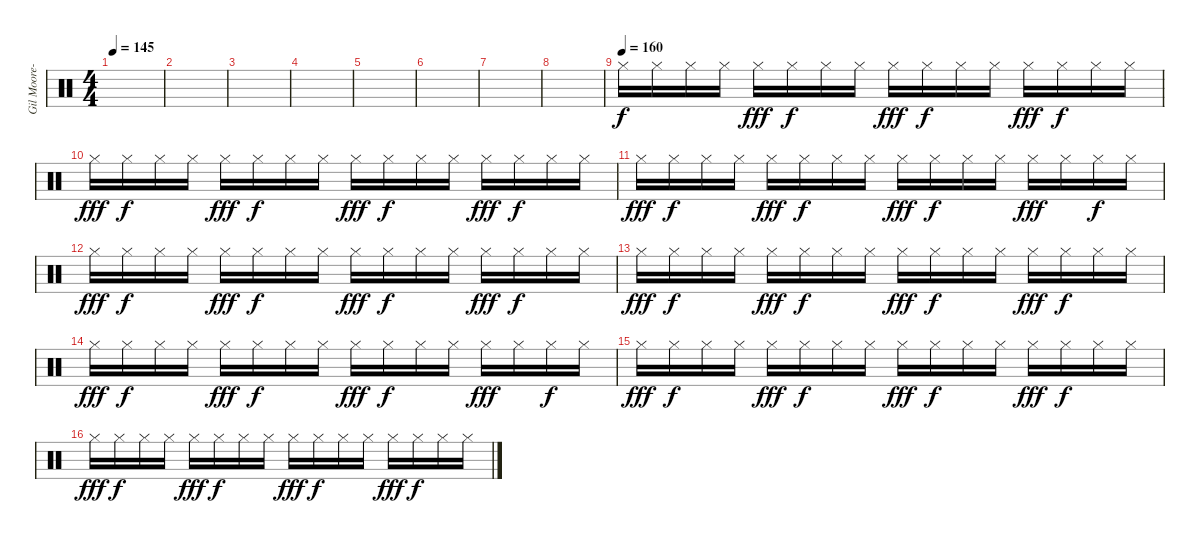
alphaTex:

\track ("Gil Moore-Drums n Vocals" "Gil Moore-") {instrument percussion}
\staff {score}
\articulation defaults
\ts (4 4)
\tempo 145
\clef neutral
\ks c
|
|
|
|
|
|
|
|
\tempo (160)
"Hi-Hat (closed)".16 "Hi-Hat (closed)".16{dy f} "Hi-Hat (closed)".16 "Hi-Hat (closed)".16 "Hi-Hat (closed)".16{dy fff} "Hi-Hat (closed)".16{dy f} "Hi-Hat (closed)".16 "Hi-Hat (closed)".16 "Hi-Hat (closed)".16{dy fff} "Hi-Hat (closed)".16{dy f} "Hi-Hat (closed)".16 "Hi-Hat (closed)".16 "Hi-Hat (closed)".16{dy fff} "Hi-Hat (closed)".16{dy f} "Hi-Hat (closed)".16 "Hi-Hat (closed)".16 |
"Hi-Hat (closed)".16{dy fff} "Hi-Hat (closed)".16{dy f} "Hi-Hat (closed)".16 "Hi-Hat (closed)".16 "Hi-Hat (closed)".16{dy fff} "Hi-Hat (closed)".16{dy f} "Hi-Hat (closed)".16 "Hi-Hat (closed)".16 "Hi-Hat (closed)".16{dy fff} "Hi-Hat (closed)".16{dy f} "Hi-Hat (closed)".16 "Hi-Hat (closed)".16 "Hi-Hat (closed)".16{dy fff} "Hi-Hat (closed)".16{dy f} "Hi-Hat (closed)".16 "Hi-Hat (closed)".16 |
"Hi-Hat (closed)".16{dy fff} "Hi-Hat (closed)".16{dy f} "Hi-Hat (closed)".16 "Hi-Hat (closed)".16 "Hi-Hat (closed)".16{dy fff} "Hi-Hat (closed)".16{dy f} "Hi-Hat (closed)".16 "Hi-Hat (closed)".16 "Hi-Hat (closed)".16{dy fff} "Hi-Hat (closed)".16{dy f} "Hi-Hat (closed)".16 "Hi-Hat (closed)".16 "Hi-Hat (closed)".16{dy fff} "Hi-Hat (closed)".16 "Hi-Hat (closed)".16{dy f} "Hi-Hat (closed)".16 |
"Hi-Hat (closed)".16{dy fff} "Hi-Hat (closed)".16{dy f} "Hi-Hat (closed)".16 "Hi-Hat (closed)".16 "Hi-Hat (closed)".16{dy fff} "Hi-Hat (closed)".16{dy f} "Hi-Hat (closed)".16 "Hi-Hat (closed)".16 "Hi-Hat (closed)".16{dy fff} "Hi-Hat (closed)".16{dy f} "Hi-Hat (closed)".16 "Hi-Hat (closed)".16 "Hi-Hat (closed)".16{dy fff} "Hi-Hat (closed)".16{dy f} "Hi-Hat (closed)".16 "Hi-Hat (closed)".16 |
"Hi-Hat (closed)".16{dy fff} "Hi-Hat (closed)".16{dy f} "Hi-Hat (closed)".16 "Hi-Hat (closed)".16 "Hi-Hat (closed)".16{dy fff} "Hi-Hat (closed)".16{dy f} "Hi-Hat (closed)".16 "Hi-Hat (closed)".16 "Hi-Hat (closed)".16{dy fff} "Hi-Hat (closed)".16{dy f} "Hi-Hat (closed)".16 "Hi-Hat (closed)".16 "Hi-Hat (closed)".16{dy fff} "Hi-Hat (closed)".16{dy f} "Hi-Hat (closed)".16 "Hi-Hat (closed)".16 |
"Hi-Hat (closed)".16{dy fff} "Hi-Hat (closed)".16{dy f} "Hi-Hat (closed)".16 "Hi-Hat (closed)".16 "Hi-Hat (closed)".16{dy fff} "Hi-Hat (closed)".16{dy f} "Hi-Hat (closed)".16 "Hi-Hat (closed)".16 "Hi-Hat (closed)".16{dy fff} "Hi-Hat (closed)".16{dy f} "Hi-Hat (closed)".16 "Hi-Hat (closed)".16 "Hi-Hat (closed)".16{dy fff} "Hi-Hat (closed)".16 "Hi-Hat (closed)".16{dy f} "Hi-Hat (closed)".16 |
"Hi-Hat (closed)".16{dy fff} "Hi-Hat (closed)".16{dy f} "Hi-Hat (closed)".16 "Hi-Hat (closed)".16 "Hi-Hat (closed)".16{dy fff} "Hi-Hat (closed)".16{dy f} "Hi-Hat (closed)".16 "Hi-Hat (closed)".16 "Hi-Hat (closed)".16{dy fff} "Hi-Hat (closed)".16{dy f} "Hi-Hat (closed)".16 "Hi-Hat (closed)".16 "Hi-Hat (closed)".16{dy fff} "Hi-Hat (closed)".16{dy f} "Hi-Hat (closed)".16 "Hi-Hat (closed)".16 |
"Hi-Hat (closed)".16{dy fff} "Hi-Hat (closed)".16{dy f} "Hi-Hat (closed)".16 "Hi-Hat (closed)".16 "Hi-Hat (closed)".16{dy fff} "Hi-Hat (closed)".16{dy f} "Hi-Hat (closed)".16 "Hi-Hat (closed)".16 "Hi-Hat (closed)".16{dy fff} "Hi-Hat (closed)".16{dy f} "Hi-Hat (closed)".16 "Hi-Hat (closed)".16 "Hi-Hat (closed)".16{dy fff} "Hi-Hat (closed)".16{dy f} "Hi-Hat (closed)".16 "Hi-Hat (closed)".16
